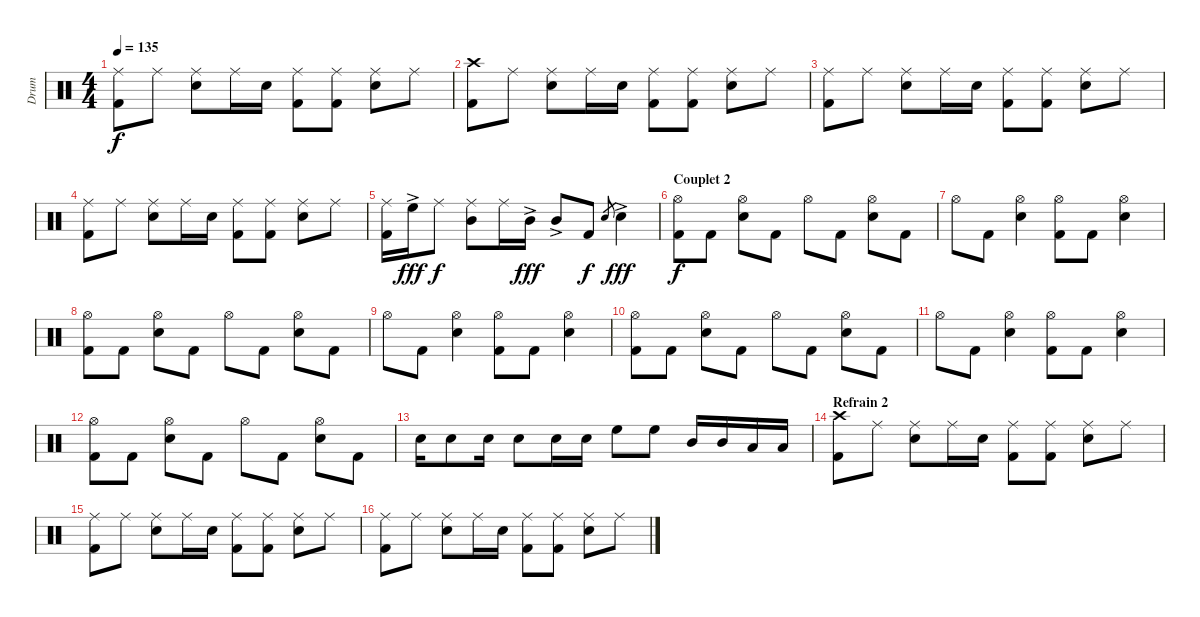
\track ("Drum" "Drum") {instrument percussion}
\staff {score}
\articulation defaults
\ts (4 4)
\tempo 135
\clef neutral
\ks c
("Ride (middle)" "Kick (hit) 2").8{dy f} "Ride (middle)".8 ("Ride (middle)" "Snare (hit) 2").8 "Ride (middle)".16 "Snare (hit) 2".16 ("Ride (middle)" "Kick (hit) 2").8 ("Ride (middle)" "Kick (hit) 2").8 ("Ride (middle)" "Snare (hit) 2").8 "Ride (middle)".8 |
("Crash high (hit)" "Kick (hit) 2").8 "Ride (middle)".8 ("Ride (middle)" "Snare (hit) 2").8 "Ride (middle)".16 "Snare (hit) 2".16 ("Ride (middle)" "Kick (hit) 2").8 ("Ride (middle)" "Kick (hit) 2").8 ("Ride (middle)" "Snare (hit) 2").8 "Ride (middle)".8 |
("Ride (middle)" "Kick (hit) 2").8 "Ride (middle)".8 ("Ride (middle)" "Snare (hit) 2").8 "Ride (middle)".16 "Snare (hit) 2".16 ("Ride (middle)" "Kick (hit) 2").8 ("Ride (middle)" "Kick (hit) 2").8 ("Ride (middle)" "Snare (hit) 2").8 "Ride (middle)".8 |
("Ride (middle)" "Kick (hit) 2").8 "Ride (middle)".8 ("Ride (middle)" "Snare (hit) 2").8 "Ride (middle)".16 "Snare (hit) 2".16 ("Ride (middle)" "Kick (hit) 2").8 ("Ride (middle)" "Kick (hit) 2").8 ("Ride (middle)" "Snare (hit) 2").8 "Ride (middle)".8 |
("Ride (middle)" "Kick (hit) 2").16 "High Floor Tom (hit)"{ac}.16{dy fff} "Ride (middle)".8{dy f} ("Ride (middle)" "Mid Tom (hit)").8 "Ride (middle)".16 "Mid Tom (hit)"{ac}.16{dy fff} "Mid Tom (hit)"{ac}.8 "Kick (hit) 2".8{dy f} "Snare (hit) 2".8{gr} "Snare (hit) 2"{ac}.4{dy fff} |
\section ("" "Couplet 2")
("Hi-Hat (open)" "Kick (hit) 2").8{dy f} "Kick (hit) 2".8 ("Hi-Hat (open)" "Snare (hit) 2").8 "Kick (hit) 2".8 "Hi-Hat (open)".8 "Kick (hit) 2".8 ("Hi-Hat (open)" "Snare (hit) 2").8 "Kick (hit) 2".8 |
"Hi-Hat (open)".8 "Kick (hit) 2".8 ("Hi-Hat (open)" "Snare (hit) 2").4 ("Hi-Hat (open)" "Kick (hit) 2").8 "Kick (hit) 2".8 ("Hi-Hat (open)" "Snare (hit) 2").4 |
("Hi-Hat (open)" "Kick (hit) 2").8 "Kick (hit) 2".8 ("Hi-Hat (open)" "Snare (hit) 2").8 "Kick (hit) 2".8 "Hi-Hat (open)".8 "Kick (hit) 2".8 ("Hi-Hat (open)" "Snare (hit) 2").8 "Kick (hit) 2".8 |
"Hi-Hat (open)".8 "Kick (hit) 2".8 ("Hi-Hat (open)" "Snare (hit) 2").4 ("Hi-Hat (open)" "Kick (hit) 2").8 "Kick (hit) 2".8 ("Hi-Hat (open)" "Snare (hit) 2").4 |
("Hi-Hat (open)" "Kick (hit) 2").8 "Kick (hit) 2".8 ("Hi-Hat (open)" "Snare (hit) 2").8 "Kick (hit) 2".8 "Hi-Hat (open)".8 "Kick (hit) 2".8 ("Hi-Hat (open)" "Snare (hit) 2").8 "Kick (hit) 2".8 |
"Hi-Hat (open)".8 "Kick (hit) 2".8 ("Hi-Hat (open)" "Snare (hit) 2").4 ("Hi-Hat (open)" "Kick (hit) 2").8 "Kick (hit) 2".8 ("Hi-Hat (open)" "Snare (hit) 2").4 |
("Hi-Hat (open)" "Kick (hit) 2").8 "Kick (hit) 2".8 ("Hi-Hat (open)" "Snare (hit) 2").8 "Kick (hit) 2".8 "Hi-Hat (open)".8 "Kick (hit) 2".8 ("Hi-Hat (open)" "Snare (hit) 2").8 "Kick (hit) 2".8 |
"Snare (hit) 2".16 "Snare (hit) 2".8 "Snare (hit) 2".16 "Snare (hit) 2".8 "Snare (hit) 2".16 "Snare (hit) 2".16 "High Floor Tom (hit)".8 "High Floor Tom (hit)".8 "Mid Tom (hit)".16 "Mid Tom (hit)".16 "Low Tom (hit)".16 "Low Tom (hit)".16 |
\section ("" "Refrain 2")
("Crash high (hit)" "Kick (hit) 2").8 "Ride (middle)".8 ("Ride (middle)" "Snare (hit) 2").8 "Ride (middle)".16 "Snare (hit) 2".16 ("Ride (middle)" "Kick (hit) 2").8 ("Ride (middle)" "Kick (hit) 2").8 ("Ride (middle)" "Snare (hit) 2").8 "Ride (middle)".8 |
("Ride (middle)" "Kick (hit) 2").8 "Ride (middle)".8 ("Ride (middle)" "Snare (hit) 2").8 "Ride (middle)".16 "Snare (hit) 2".16 ("Ride (middle)" "Kick (hit) 2").8 ("Ride (middle)" "Kick (hit) 2").8 ("Ride (middle)" "Snare (hit) 2").8 "Ride (middle)".8 |
("Ride (middle)" "Kick (hit) 2").8 "Ride (middle)".8 ("Ride (middle)" "Snare (hit) 2").8 "Ride (middle)".16 "Snare (hit) 2".16 ("Ride (middle)" "Kick (hit) 2").8 ("Ride (middle)" "Kick (hit) 2").8 ("Ride (middle)" "Snare (hit) 2").8 "Ride (middle)".8
